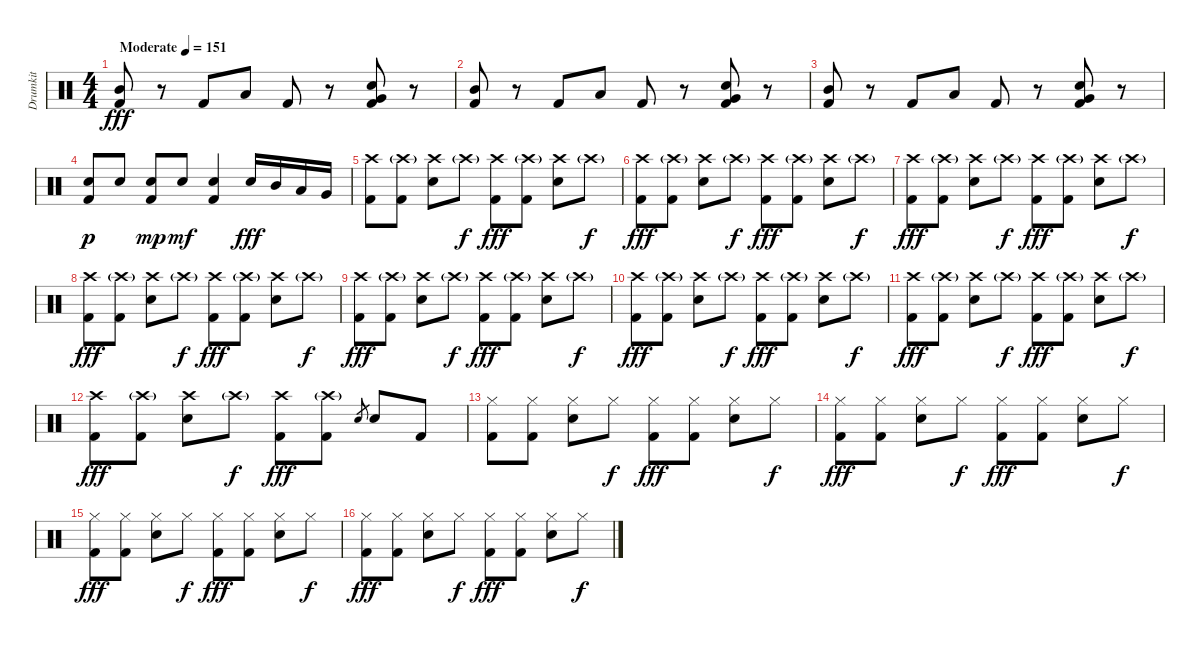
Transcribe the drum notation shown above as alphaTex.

\track ("Drumkit" "Drumkit") {instrument percussion}
\staff {score}
\articulation defaults
\ts (4 4)
\tempo (151 "Moderate")
\clef neutral
\ks c
("Kick (hit) 2" "Mid Tom (hit)").8{dy fff} r.8 "Kick (hit) 2".8 "Low Tom (hit)".8 "Kick (hit) 2".8 r.8 ("Kick (hit) 2" "Very Low Tom (hit)" "Electric Snare (hit)").8 r.8 |
("Kick (hit) 2" "Mid Tom (hit)").8 r.8 "Kick (hit) 2".8 "Low Tom (hit)".8 "Kick (hit) 2".8 r.8 ("Kick (hit) 2" "Very Low Tom (hit)" "Electric Snare (hit)").8 r.8 |
("Kick (hit) 2" "Mid Tom (hit)").8 r.8 "Kick (hit) 2".8 "Low Tom (hit)".8 "Kick (hit) 2".8 r.8 ("Kick (hit) 2" "Very Low Tom (hit)" "Electric Snare (hit)").8 r.8 |
("Kick (hit) 2" "Electric Snare (hit)").8{dy p} "Electric Snare (hit)".8 ("Kick (hit) 2" "Electric Snare (hit)").8{dy mp} "Electric Snare (hit)".8{dy mf} ("Kick (hit) 2" "Electric Snare (hit)").4 "Electric Snare (hit)".16{dy fff} "Mid Tom (hit)".16 "Low Tom (hit)".16 "Very Low Tom (hit)".16 |
("Kick (hit) 2" "Crash high (hit)").8 ("Kick (hit) 2" "Crash high (hit)"{g}).8 ("Electric Snare (hit)" "Crash high (hit)").8 "Crash high (hit)"{g}.8{dy f} ("Kick (hit) 2" "Crash high (hit)").8{dy fff} ("Kick (hit) 2" "Crash high (hit)"{g}).8 ("Electric Snare (hit)" "Crash high (hit)").8 "Crash high (hit)"{g}.8{dy f} |
("Kick (hit) 2" "Crash high (hit)").8{dy fff} ("Kick (hit) 2" "Crash high (hit)"{g}).8 ("Electric Snare (hit)" "Crash high (hit)").8 "Crash high (hit)"{g}.8{dy f} ("Kick (hit) 2" "Crash high (hit)").8{dy fff} ("Kick (hit) 2" "Crash high (hit)"{g}).8 ("Electric Snare (hit)" "Crash high (hit)").8 "Crash high (hit)"{g}.8{dy f} |
("Kick (hit) 2" "Crash high (hit)").8{dy fff} ("Kick (hit) 2" "Crash high (hit)"{g}).8 ("Electric Snare (hit)" "Crash high (hit)").8 "Crash high (hit)"{g}.8{dy f} ("Kick (hit) 2" "Crash high (hit)").8{dy fff} ("Kick (hit) 2" "Crash high (hit)"{g}).8 ("Electric Snare (hit)" "Crash high (hit)").8 "Crash high (hit)"{g}.8{dy f} |
("Kick (hit) 2" "Crash high (hit)").8{dy fff} ("Kick (hit) 2" "Crash high (hit)"{g}).8 ("Electric Snare (hit)" "Crash high (hit)").8 "Crash high (hit)"{g}.8{dy f} ("Kick (hit) 2" "Crash high (hit)").8{dy fff} ("Kick (hit) 2" "Crash high (hit)"{g}).8 ("Electric Snare (hit)" "Crash high (hit)").8 "Crash high (hit)"{g}.8{dy f} |
("Kick (hit) 2" "Crash high (hit)").8{dy fff} ("Kick (hit) 2" "Crash high (hit)"{g}).8 ("Electric Snare (hit)" "Crash high (hit)").8 "Crash high (hit)"{g}.8{dy f} ("Kick (hit) 2" "Crash high (hit)").8{dy fff} ("Kick (hit) 2" "Crash high (hit)"{g}).8 ("Electric Snare (hit)" "Crash high (hit)").8 "Crash high (hit)"{g}.8{dy f} |
("Kick (hit) 2" "Crash high (hit)").8{dy fff} ("Kick (hit) 2" "Crash high (hit)"{g}).8 ("Electric Snare (hit)" "Crash high (hit)").8 "Crash high (hit)"{g}.8{dy f} ("Kick (hit) 2" "Crash high (hit)").8{dy fff} ("Kick (hit) 2" "Crash high (hit)"{g}).8 ("Electric Snare (hit)" "Crash high (hit)").8 "Crash high (hit)"{g}.8{dy f} |
("Kick (hit) 2" "Crash high (hit)").8{dy fff} ("Kick (hit) 2" "Crash high (hit)"{g}).8 ("Electric Snare (hit)" "Crash high (hit)").8 "Crash high (hit)"{g}.8{dy f} ("Kick (hit) 2" "Crash high (hit)").8{dy fff} ("Kick (hit) 2" "Crash high (hit)"{g}).8 ("Electric Snare (hit)" "Crash high (hit)").8 "Crash high (hit)"{g}.8{dy f} |
("Kick (hit) 2" "Crash high (hit)").8{dy fff} ("Kick (hit) 2" "Crash high (hit)"{g}).8 ("Electric Snare (hit)" "Crash high (hit)").8 "Crash high (hit)"{g}.8{dy f} ("Kick (hit) 2" "Crash high (hit)").8{dy fff} ("Kick (hit) 2" "Crash high (hit)"{g}).8 "Electric Snare (hit)".8{gr} "Electric Snare (hit)".8 "Kick (hit) 2".8 |
("Kick (hit) 2" "Hi-Hat (closed)").8 ("Hi-Hat (closed)" "Kick (hit) 2").8 ("Electric Snare (hit)" "Hi-Hat (closed)").8 "Hi-Hat (closed)".8{dy f} ("Kick (hit) 2" "Hi-Hat (closed)").8{dy fff} ("Kick (hit) 2" "Hi-Hat (closed)").8 ("Electric Snare (hit)" "Hi-Hat (closed)").8 "Hi-Hat (closed)".8{dy f} |
("Kick (hit) 2" "Hi-Hat (closed)").8{dy fff} ("Hi-Hat (closed)" "Kick (hit) 2").8 ("Electric Snare (hit)" "Hi-Hat (closed)").8 "Hi-Hat (closed)".8{dy f} ("Kick (hit) 2" "Hi-Hat (closed)").8{dy fff} ("Kick (hit) 2" "Hi-Hat (closed)").8 ("Electric Snare (hit)" "Hi-Hat (closed)").8 "Hi-Hat (closed)".8{dy f} |
("Kick (hit) 2" "Hi-Hat (closed)").8{dy fff} ("Hi-Hat (closed)" "Kick (hit) 2").8 ("Electric Snare (hit)" "Hi-Hat (closed)").8 "Hi-Hat (closed)".8{dy f} ("Kick (hit) 2" "Hi-Hat (closed)").8{dy fff} ("Kick (hit) 2" "Hi-Hat (closed)").8 ("Electric Snare (hit)" "Hi-Hat (closed)").8 "Hi-Hat (closed)".8{dy f} |
("Kick (hit) 2" "Hi-Hat (closed)").8{dy fff} ("Hi-Hat (closed)" "Kick (hit) 2").8 ("Electric Snare (hit)" "Hi-Hat (closed)").8 "Hi-Hat (closed)".8{dy f} ("Kick (hit) 2" "Hi-Hat (closed)").8{dy fff} ("Kick (hit) 2" "Hi-Hat (closed)").8 ("Electric Snare (hit)" "Hi-Hat (closed)").8 "Hi-Hat (closed)".8{dy f}
